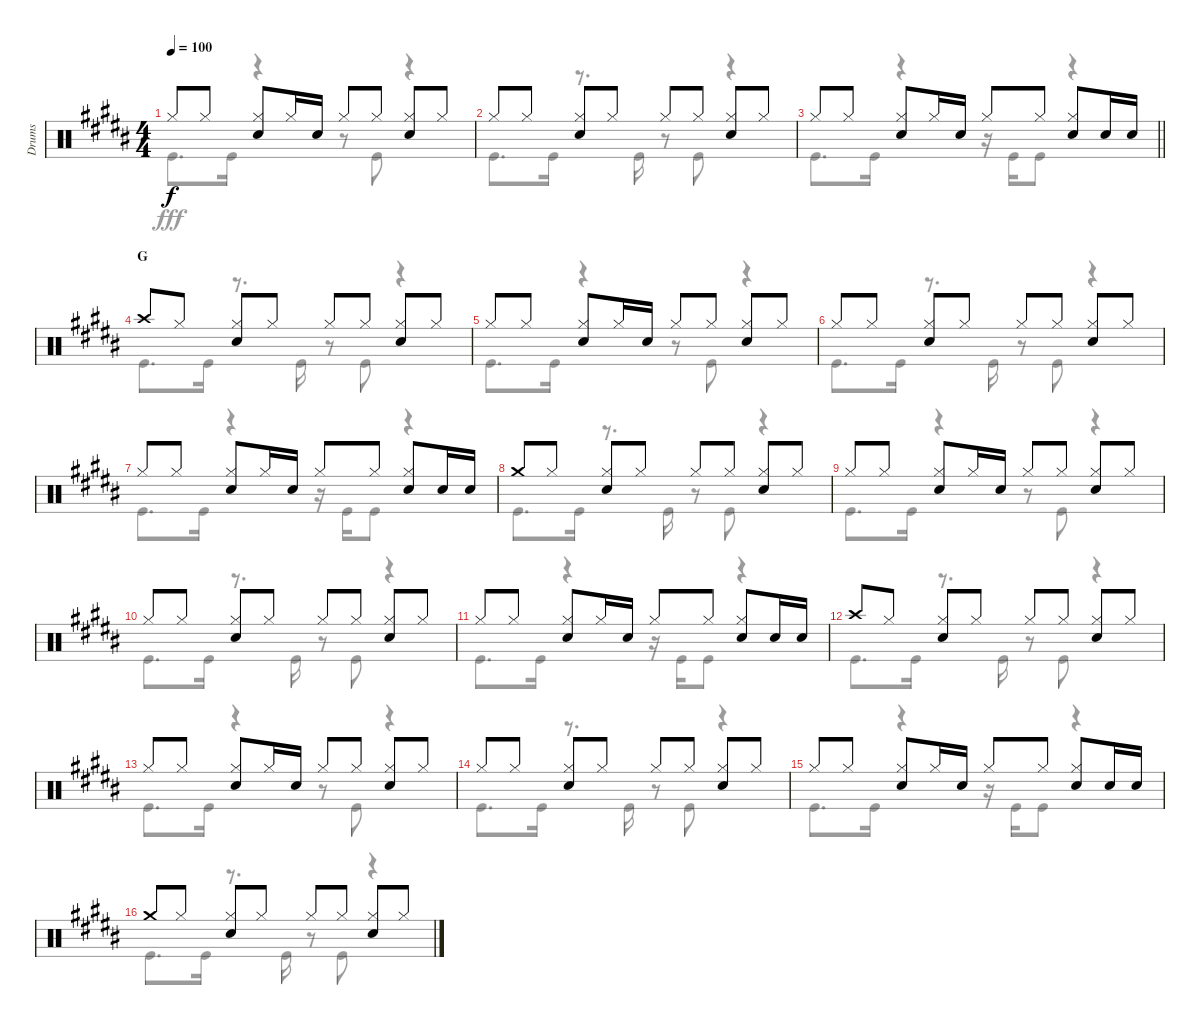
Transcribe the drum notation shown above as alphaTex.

\track ("Drums" "Drums") {instrument percussion}
\staff {score}
\articulation defaults
\voice
\ts (4 4)
\tempo 100
\clef neutral
\ks b "Hi-Hat (closed)".8{dy f} "Hi-Hat (closed)".8
("Hi-Hat (closed)" "Snare (hit) 2").8 "Hi-Hat (closed)".16 "Snare (hit) 2".16 "Hi-Hat (closed)".8 "Hi-Hat (closed)".8 ("Hi-Hat (closed)" "Snare (hit) 2").8 "Hi-Hat (closed)".8 |
"Hi-Hat (closed)".8 "Hi-Hat (closed)".8 ("Hi-Hat (closed)" "Snare (hit) 2").8 "Hi-Hat (closed)".8 "Hi-Hat (closed)".8 "Hi-Hat (closed)".8 ("Hi-Hat (closed)" "Snare (hit) 2").8 "Hi-Hat (closed)".8 |
\barLineRight lightlight "Hi-Hat (closed)".8 "Hi-Hat (closed)".8
("Hi-Hat (closed)" "Snare (hit) 2").8 "Hi-Hat (closed)".16 "Snare (hit) 2".16 "Hi-Hat (closed)".8 "Hi-Hat (closed)".8 ("Hi-Hat (closed)" "Snare (hit) 2").8 "Snare (hit) 2".16 "Snare (hit) 2".16 |
\section ("" "G")
"Crash high (hit)".8 "Hi-Hat (closed)".8 ("Hi-Hat (closed)" "Snare (hit) 2").8 "Hi-Hat (closed)".8 "Hi-Hat (closed)".8 "Hi-Hat (closed)".8 ("Hi-Hat (closed)" "Snare (hit) 2").8 "Hi-Hat (closed)".8 |
"Hi-Hat (closed)".8 "Hi-Hat (closed)".8 ("Hi-Hat (closed)" "Snare (hit) 2").8 "Hi-Hat (closed)".16 "Snare (hit) 2".16 "Hi-Hat (closed)".8 "Hi-Hat (closed)".8 ("Hi-Hat (closed)" "Snare (hit) 2").8 "Hi-Hat (closed)".8 |
"Hi-Hat (closed)".8 "Hi-Hat (closed)".8 ("Hi-Hat (closed)" "Snare (hit) 2").8 "Hi-Hat (closed)".8 "Hi-Hat (closed)".8 "Hi-Hat (closed)".8 ("Hi-Hat (closed)" "Snare (hit) 2").8 "Hi-Hat (closed)".8 |
"Hi-Hat (closed)".8 "Hi-Hat (closed)".8 ("Hi-Hat (closed)" "Snare (hit) 2").8 "Hi-Hat (closed)".16 "Snare (hit) 2".16 "Hi-Hat (closed)".8 "Hi-Hat (closed)".8 ("Hi-Hat (closed)" "Snare (hit) 2").8 "Snare (hit) 2".16 "Snare (hit) 2".16 |
"Crash medium (hit)".8 "Hi-Hat (closed)".8 ("Hi-Hat (closed)" "Snare (hit) 2").8 "Hi-Hat (closed)".8 "Hi-Hat (closed)".8 "Hi-Hat (closed)".8 ("Hi-Hat (closed)" "Snare (hit) 2").8 "Hi-Hat (closed)".8 |
"Hi-Hat (closed)".8 "Hi-Hat (closed)".8 ("Hi-Hat (closed)" "Snare (hit) 2").8 "Hi-Hat (closed)".16 "Snare (hit) 2".16 "Hi-Hat (closed)".8 "Hi-Hat (closed)".8 ("Hi-Hat (closed)" "Snare (hit) 2").8 "Hi-Hat (closed)".8 |
"Hi-Hat (closed)".8 "Hi-Hat (closed)".8 ("Hi-Hat (closed)" "Snare (hit) 2").8 "Hi-Hat (closed)".8 "Hi-Hat (closed)".8 "Hi-Hat (closed)".8 ("Hi-Hat (closed)" "Snare (hit) 2").8 "Hi-Hat (closed)".8 |
"Hi-Hat (closed)".8 "Hi-Hat (closed)".8 ("Hi-Hat (closed)" "Snare (hit) 2").8 "Hi-Hat (closed)".16 "Snare (hit) 2".16 "Hi-Hat (closed)".8 "Hi-Hat (closed)".8 ("Hi-Hat (closed)" "Snare (hit) 2").8 "Snare (hit) 2".16 "Snare (hit) 2".16 |
"Crash high (hit)".8 "Hi-Hat (closed)".8 ("Hi-Hat (closed)" "Snare (hit) 2").8 "Hi-Hat (closed)".8 "Hi-Hat (closed)".8 "Hi-Hat (closed)".8 ("Hi-Hat (closed)" "Snare (hit) 2").8 "Hi-Hat (closed)".8 |
"Hi-Hat (closed)".8 "Hi-Hat (closed)".8 ("Hi-Hat (closed)" "Snare (hit) 2").8 "Hi-Hat (closed)".16 "Snare (hit) 2".16 "Hi-Hat (closed)".8 "Hi-Hat (closed)".8 ("Hi-Hat (closed)" "Snare (hit) 2").8 "Hi-Hat (closed)".8 |
"Hi-Hat (closed)".8 "Hi-Hat (closed)".8 ("Hi-Hat (closed)" "Snare (hit) 2").8 "Hi-Hat (closed)".8 "Hi-Hat (closed)".8 "Hi-Hat (closed)".8 ("Hi-Hat (closed)" "Snare (hit) 2").8 "Hi-Hat (closed)".8 |
"Hi-Hat (closed)".8 "Hi-Hat (closed)".8 ("Hi-Hat (closed)" "Snare (hit) 2").8 "Hi-Hat (closed)".16 "Snare (hit) 2".16 "Hi-Hat (closed)".8 "Hi-Hat (closed)".8 ("Hi-Hat (closed)" "Snare (hit) 2").8 "Snare (hit) 2".16 "Snare (hit) 2".16 |
"Crash medium (hit)".8 "Hi-Hat (closed)".8 ("Hi-Hat (closed)" "Snare (hit) 2").8 "Hi-Hat (closed)".8 "Hi-Hat (closed)".8 "Hi-Hat (closed)".8 ("Hi-Hat (closed)" "Snare (hit) 2").8 "Hi-Hat (closed)".8
\voice
\clef neutral
\ottava regular
\simile none
\ks b "Kick (hit)".8{d dy fff} "Kick (hit)".16
r.4 r.8 "Kick (hit)".8 r.4 |
"Kick (hit)".8{d} "Kick (hit)".16 r.8{d} "Kick (hit)".16 r.8 "Kick (hit)".8 r.4 |
\barLineRight lightlight "Kick (hit)".8{d} "Kick (hit)".16
r.4 r.16 "Kick (hit)".16 "Kick (hit)".8 r.4 |
"Kick (hit)".8{d} "Kick (hit)".16 r.8{d} "Kick (hit)".16 r.8 "Kick (hit)".8 r.4 |
"Kick (hit)".8{d} "Kick (hit)".16 r.4 r.8 "Kick (hit)".8 r.4 |
"Kick (hit)".8{d} "Kick (hit)".16 r.8{d} "Kick (hit)".16 r.8 "Kick (hit)".8 r.4 |
"Kick (hit)".8{d} "Kick (hit)".16 r.4 r.16 "Kick (hit)".16 "Kick (hit)".8 r.4 |
"Kick (hit)".8{d} "Kick (hit)".16 r.8{d} "Kick (hit)".16 r.8 "Kick (hit)".8 r.4 |
"Kick (hit)".8{d} "Kick (hit)".16 r.4 r.8 "Kick (hit)".8 r.4 |
"Kick (hit)".8{d} "Kick (hit)".16 r.8{d} "Kick (hit)".16 r.8 "Kick (hit)".8 r.4 |
"Kick (hit)".8{d} "Kick (hit)".16 r.4 r.16 "Kick (hit)".16 "Kick (hit)".8 r.4 |
"Kick (hit)".8{d} "Kick (hit)".16 r.8{d} "Kick (hit)".16 r.8 "Kick (hit)".8 r.4 |
"Kick (hit)".8{d} "Kick (hit)".16 r.4 r.8 "Kick (hit)".8 r.4 |
"Kick (hit)".8{d} "Kick (hit)".16 r.8{d} "Kick (hit)".16 r.8 "Kick (hit)".8 r.4 |
"Kick (hit)".8{d} "Kick (hit)".16 r.4 r.16 "Kick (hit)".16 "Kick (hit)".8 r.4 |
"Kick (hit)".8{d} "Kick (hit)".16 r.8{d} "Kick (hit)".16 r.8 "Kick (hit)".8 r.4
